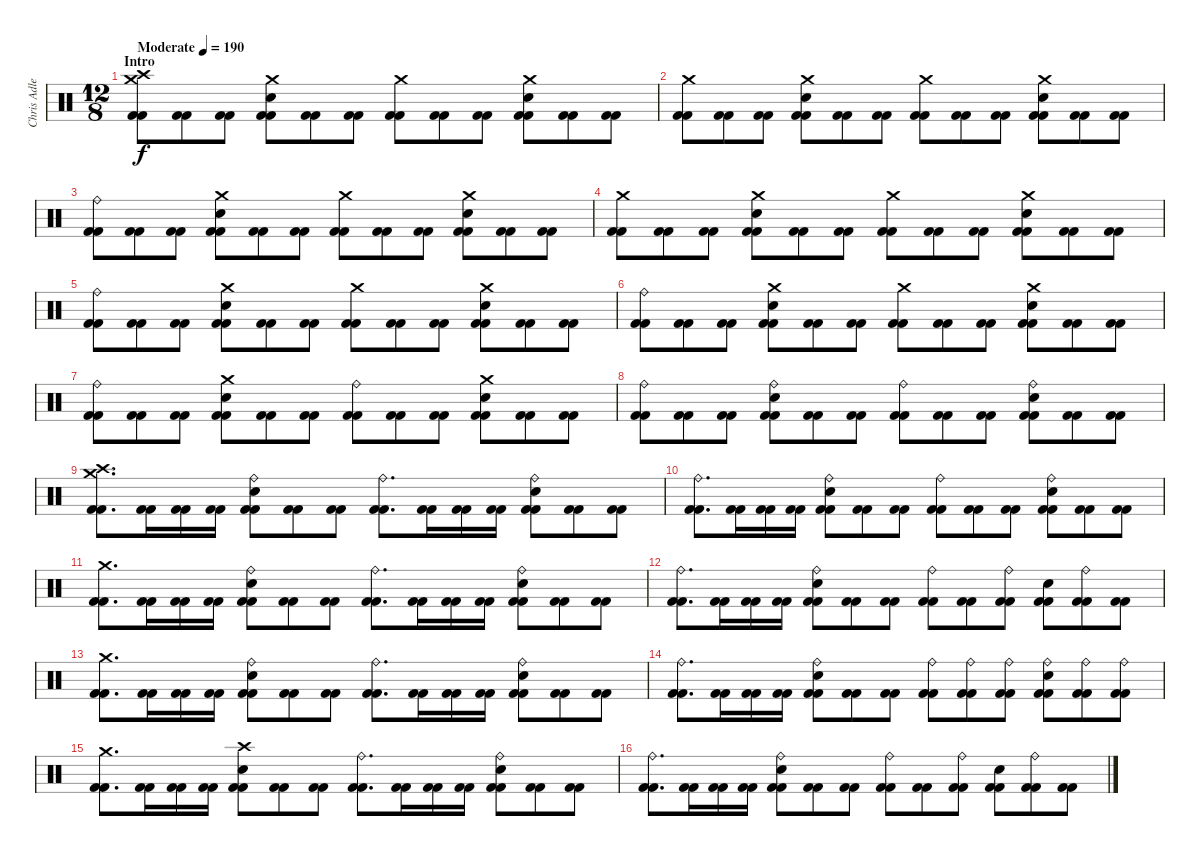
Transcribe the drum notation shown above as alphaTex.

\track ("Chris Adler" "Chris Adle") {instrument percussion}
\staff {score}
\articulation defaults
\ts (12 8)
\section ("" "Intro")
\tempo (190 "Moderate")
\clef neutral
\ks c
("Crash medium (hit)" "Crash high (hit)" "Kick (hit) 2" "Kick (hit) 2").8{dy f} ("Kick (hit) 2" "Kick (hit) 2").8 ("Kick (hit) 2" "Kick (hit) 2").8 ("Crash medium (hit)" "Electric Snare (hit)" "Kick (hit) 2" "Kick (hit) 2").8 ("Kick (hit) 2" "Kick (hit) 2").8 ("Kick (hit) 2" "Kick (hit) 2").8 ("Crash medium (hit)" "Kick (hit) 2" "Kick (hit) 2").8 ("Kick (hit) 2" "Kick (hit) 2").8 ("Kick (hit) 2" "Kick (hit) 2").8 ("Crash medium (hit)" "Electric Snare (hit)" "Kick (hit) 2" "Kick (hit) 2").8 ("Kick (hit) 2" "Kick (hit) 2").8 ("Kick (hit) 2" "Kick (hit) 2").8 |
("Crash medium (hit)" "Kick (hit) 2" "Kick (hit) 2").8 ("Kick (hit) 2" "Kick (hit) 2").8 ("Kick (hit) 2" "Kick (hit) 2").8 ("Crash medium (hit)" "Electric Snare (hit)" "Kick (hit) 2" "Kick (hit) 2").8 ("Kick (hit) 2" "Kick (hit) 2").8 ("Kick (hit) 2" "Kick (hit) 2").8 ("Crash medium (hit)" "Kick (hit) 2" "Kick (hit) 2").8 ("Kick (hit) 2" "Kick (hit) 2").8 ("Kick (hit) 2" "Kick (hit) 2").8 ("Crash medium (hit)" "Electric Snare (hit)" "Kick (hit) 2" "Kick (hit) 2").8 ("Kick (hit) 2" "Kick (hit) 2").8 ("Kick (hit) 2" "Kick (hit) 2").8 |
("Ride (bell)" "Kick (hit) 2" "Kick (hit) 2").8 ("Kick (hit) 2" "Kick (hit) 2").8 ("Kick (hit) 2" "Kick (hit) 2").8 ("Crash medium (hit)" "Electric Snare (hit)" "Kick (hit) 2" "Kick (hit) 2").8 ("Kick (hit) 2" "Kick (hit) 2").8 ("Kick (hit) 2" "Kick (hit) 2").8 ("Crash medium (hit)" "Kick (hit) 2" "Kick (hit) 2").8 ("Kick (hit) 2" "Kick (hit) 2").8 ("Kick (hit) 2" "Kick (hit) 2").8 ("Crash medium (hit)" "Electric Snare (hit)" "Kick (hit) 2" "Kick (hit) 2").8 ("Kick (hit) 2" "Kick (hit) 2").8 ("Kick (hit) 2" "Kick (hit) 2").8 |
("Crash medium (hit)" "Kick (hit) 2" "Kick (hit) 2").8 ("Kick (hit) 2" "Kick (hit) 2").8 ("Kick (hit) 2" "Kick (hit) 2").8 ("Crash medium (hit)" "Electric Snare (hit)" "Kick (hit) 2" "Kick (hit) 2").8 ("Kick (hit) 2" "Kick (hit) 2").8 ("Kick (hit) 2" "Kick (hit) 2").8 ("Crash medium (hit)" "Kick (hit) 2" "Kick (hit) 2").8 ("Kick (hit) 2" "Kick (hit) 2").8 ("Kick (hit) 2" "Kick (hit) 2").8 ("Crash medium (hit)" "Electric Snare (hit)" "Kick (hit) 2" "Kick (hit) 2").8 ("Kick (hit) 2" "Kick (hit) 2").8 ("Kick (hit) 2" "Kick (hit) 2").8 |
("Ride (bell)" "Kick (hit) 2" "Kick (hit) 2").8 ("Kick (hit) 2" "Kick (hit) 2").8 ("Kick (hit) 2" "Kick (hit) 2").8 ("Crash medium (hit)" "Electric Snare (hit)" "Kick (hit) 2" "Kick (hit) 2").8 ("Kick (hit) 2" "Kick (hit) 2").8 ("Kick (hit) 2" "Kick (hit) 2").8 ("Crash medium (hit)" "Kick (hit) 2" "Kick (hit) 2").8 ("Kick (hit) 2" "Kick (hit) 2").8 ("Kick (hit) 2" "Kick (hit) 2").8 ("Crash medium (hit)" "Electric Snare (hit)" "Kick (hit) 2" "Kick (hit) 2").8 ("Kick (hit) 2" "Kick (hit) 2").8 ("Kick (hit) 2" "Kick (hit) 2").8 |
("Ride (bell)" "Kick (hit) 2" "Kick (hit) 2").8 ("Kick (hit) 2" "Kick (hit) 2").8 ("Kick (hit) 2" "Kick (hit) 2").8 ("Crash medium (hit)" "Electric Snare (hit)" "Kick (hit) 2" "Kick (hit) 2").8 ("Kick (hit) 2" "Kick (hit) 2").8 ("Kick (hit) 2" "Kick (hit) 2").8 ("Crash medium (hit)" "Kick (hit) 2" "Kick (hit) 2").8 ("Kick (hit) 2" "Kick (hit) 2").8 ("Kick (hit) 2" "Kick (hit) 2").8 ("Crash medium (hit)" "Electric Snare (hit)" "Kick (hit) 2" "Kick (hit) 2").8 ("Kick (hit) 2" "Kick (hit) 2").8 ("Kick (hit) 2" "Kick (hit) 2").8 |
("Ride (bell)" "Kick (hit) 2" "Kick (hit) 2").8 ("Kick (hit) 2" "Kick (hit) 2").8 ("Kick (hit) 2" "Kick (hit) 2").8 ("Crash medium (hit)" "Electric Snare (hit)" "Kick (hit) 2" "Kick (hit) 2").8 ("Kick (hit) 2" "Kick (hit) 2").8 ("Kick (hit) 2" "Kick (hit) 2").8 ("Ride (bell)" "Kick (hit) 2" "Kick (hit) 2").8 ("Kick (hit) 2" "Kick (hit) 2").8 ("Kick (hit) 2" "Kick (hit) 2").8 ("Crash medium (hit)" "Electric Snare (hit)" "Kick (hit) 2" "Kick (hit) 2").8 ("Kick (hit) 2" "Kick (hit) 2").8 ("Kick (hit) 2" "Kick (hit) 2").8 |
("Ride (bell)" "Kick (hit) 2" "Kick (hit) 2").8 ("Kick (hit) 2" "Kick (hit) 2").8 ("Kick (hit) 2" "Kick (hit) 2").8 ("Ride (bell)" "Electric Snare (hit)" "Kick (hit) 2" "Kick (hit) 2").8 ("Kick (hit) 2" "Kick (hit) 2").8 ("Kick (hit) 2" "Kick (hit) 2").8 ("Ride (bell)" "Kick (hit) 2" "Kick (hit) 2").8 ("Kick (hit) 2" "Kick (hit) 2").8 ("Kick (hit) 2" "Kick (hit) 2").8 ("Ride (bell)" "Electric Snare (hit)" "Kick (hit) 2" "Kick (hit) 2").8 ("Kick (hit) 2" "Kick (hit) 2").8 ("Kick (hit) 2" "Kick (hit) 2").8 |
("Crash medium (hit)" "Crash high (hit)" "Kick (hit) 2" "Kick (hit) 2").8{d} ("Kick (hit) 2" "Kick (hit) 2").16 ("Kick (hit) 2" "Kick (hit) 2").16 ("Kick (hit) 2" "Kick (hit) 2").16 ("Ride (bell)" "Electric Snare (hit)" "Kick (hit) 2" "Kick (hit) 2").8 ("Kick (hit) 2" "Kick (hit) 2").8 ("Kick (hit) 2" "Kick (hit) 2").8 ("Ride (bell)" "Kick (hit) 2" "Kick (hit) 2").8{d} ("Kick (hit) 2" "Kick (hit) 2").16 ("Kick (hit) 2" "Kick (hit) 2").16 ("Kick (hit) 2" "Kick (hit) 2").16 ("Ride (bell)" "Electric Snare (hit)" "Kick (hit) 2" "Kick (hit) 2").8 ("Kick (hit) 2" "Kick (hit) 2").8 ("Kick (hit) 2" "Kick (hit) 2").8 |
("Ride (bell)" "Kick (hit) 2" "Kick (hit) 2").8{d} ("Kick (hit) 2" "Kick (hit) 2").16 ("Kick (hit) 2" "Kick (hit) 2").16 ("Kick (hit) 2" "Kick (hit) 2").16 ("Ride (bell)" "Electric Snare (hit)" "Kick (hit) 2" "Kick (hit) 2").8 ("Kick (hit) 2" "Kick (hit) 2").8 ("Kick (hit) 2" "Kick (hit) 2").8 ("Ride (bell)" "Kick (hit) 2" "Kick (hit) 2").8 ("Kick (hit) 2" "Kick (hit) 2").8 ("Kick (hit) 2" "Kick (hit) 2").8 ("Ride (bell)" "Electric Snare (hit)" "Kick (hit) 2" "Kick (hit) 2").8 ("Kick (hit) 2" "Kick (hit) 2").8 ("Kick (hit) 2" "Kick (hit) 2").8 |
("Crash medium (hit)" "Kick (hit) 2" "Kick (hit) 2").8{d} ("Kick (hit) 2" "Kick (hit) 2").16 ("Kick (hit) 2" "Kick (hit) 2").16 ("Kick (hit) 2" "Kick (hit) 2").16 ("Ride (bell)" "Electric Snare (hit)" "Kick (hit) 2" "Kick (hit) 2").8 ("Kick (hit) 2" "Kick (hit) 2").8 ("Kick (hit) 2" "Kick (hit) 2").8 ("Ride (bell)" "Kick (hit) 2" "Kick (hit) 2").8{d} ("Kick (hit) 2" "Kick (hit) 2").16 ("Kick (hit) 2" "Kick (hit) 2").16 ("Kick (hit) 2" "Kick (hit) 2").16 ("Ride (bell)" "Electric Snare (hit)" "Kick (hit) 2" "Kick (hit) 2").8 ("Kick (hit) 2" "Kick (hit) 2").8 ("Kick (hit) 2" "Kick (hit) 2").8 |
("Ride (bell)" "Kick (hit) 2" "Kick (hit) 2").8{d} ("Kick (hit) 2" "Kick (hit) 2").16 ("Kick (hit) 2" "Kick (hit) 2").16 ("Kick (hit) 2" "Kick (hit) 2").16 ("Ride (bell)" "Electric Snare (hit)" "Kick (hit) 2" "Kick (hit) 2").8 ("Kick (hit) 2" "Kick (hit) 2").8 ("Kick (hit) 2" "Kick (hit) 2").8 ("Ride (bell)" "Kick (hit) 2" "Kick (hit) 2").8 ("Kick (hit) 2" "Kick (hit) 2").8 ("Ride (bell)" "Kick (hit) 2" "Kick (hit) 2").8 ("Electric Snare (hit)" "Kick (hit) 2" "Kick (hit) 2").8 ("Ride (bell)" "Kick (hit) 2" "Kick (hit) 2").8 ("Kick (hit) 2" "Kick (hit) 2").8 |
("Crash medium (hit)" "Kick (hit) 2" "Kick (hit) 2").8{d} ("Kick (hit) 2" "Kick (hit) 2").16 ("Kick (hit) 2" "Kick (hit) 2").16 ("Kick (hit) 2" "Kick (hit) 2").16 ("Ride (bell)" "Electric Snare (hit)" "Kick (hit) 2" "Kick (hit) 2").8 ("Kick (hit) 2" "Kick (hit) 2").8 ("Kick (hit) 2" "Kick (hit) 2").8 ("Ride (bell)" "Kick (hit) 2" "Kick (hit) 2").8{d} ("Kick (hit) 2" "Kick (hit) 2").16 ("Kick (hit) 2" "Kick (hit) 2").16 ("Kick (hit) 2" "Kick (hit) 2").16 ("Ride (bell)" "Electric Snare (hit)" "Kick (hit) 2" "Kick (hit) 2").8 ("Kick (hit) 2" "Kick (hit) 2").8 ("Kick (hit) 2" "Kick (hit) 2").8 |
("Ride (bell)" "Kick (hit) 2" "Kick (hit) 2").8{d} ("Kick (hit) 2" "Kick (hit) 2").16 ("Kick (hit) 2" "Kick (hit) 2").16 ("Kick (hit) 2" "Kick (hit) 2").16 ("Ride (bell)" "Electric Snare (hit)" "Kick (hit) 2" "Kick (hit) 2").8 ("Kick (hit) 2" "Kick (hit) 2").8 ("Kick (hit) 2" "Kick (hit) 2").8 ("Ride (bell)" "Kick (hit) 2" "Kick (hit) 2").8 ("Ride (bell)" "Kick (hit) 2" "Kick (hit) 2").8 ("Ride (bell)" "Kick (hit) 2" "Kick (hit) 2").8 ("Ride (bell)" "Electric Snare (hit)" "Kick (hit) 2" "Kick (hit) 2").8 ("Ride (bell)" "Kick (hit) 2" "Kick (hit) 2").8 ("Ride (bell)" "Kick (hit) 2" "Kick (hit) 2").8 |
("Crash medium (hit)" "Kick (hit) 2" "Kick (hit) 2").8{d} ("Kick (hit) 2" "Kick (hit) 2").16 ("Kick (hit) 2" "Kick (hit) 2").16 ("Kick (hit) 2" "Kick (hit) 2").16 ("Crash high (hit)" "Electric Snare (hit)" "Kick (hit) 2" "Kick (hit) 2").8 ("Kick (hit) 2" "Kick (hit) 2").8 ("Kick (hit) 2" "Kick (hit) 2").8 ("Ride (bell)" "Kick (hit) 2" "Kick (hit) 2").8{d} ("Kick (hit) 2" "Kick (hit) 2").16 ("Kick (hit) 2" "Kick (hit) 2").16 ("Kick (hit) 2" "Kick (hit) 2").16 ("Ride (bell)" "Electric Snare (hit)" "Kick (hit) 2" "Kick (hit) 2").8 ("Kick (hit) 2" "Kick (hit) 2").8 ("Kick (hit) 2" "Kick (hit) 2").8 |
("Ride (bell)" "Kick (hit) 2" "Kick (hit) 2").8{d} ("Kick (hit) 2" "Kick (hit) 2").16 ("Kick (hit) 2" "Kick (hit) 2").16 ("Kick (hit) 2" "Kick (hit) 2").16 ("Ride (bell)" "Electric Snare (hit)" "Kick (hit) 2" "Kick (hit) 2").8 ("Kick (hit) 2" "Kick (hit) 2").8 ("Kick (hit) 2" "Kick (hit) 2").8 ("Ride (bell)" "Kick (hit) 2" "Kick (hit) 2").8 ("Kick (hit) 2" "Kick (hit) 2").8 ("Ride (bell)" "Kick (hit) 2" "Kick (hit) 2").8 ("Electric Snare (hit)" "Kick (hit) 2" "Kick (hit) 2").8 ("Ride (bell)" "Kick (hit) 2" "Kick (hit) 2").8 ("Kick (hit) 2" "Kick (hit) 2").8
